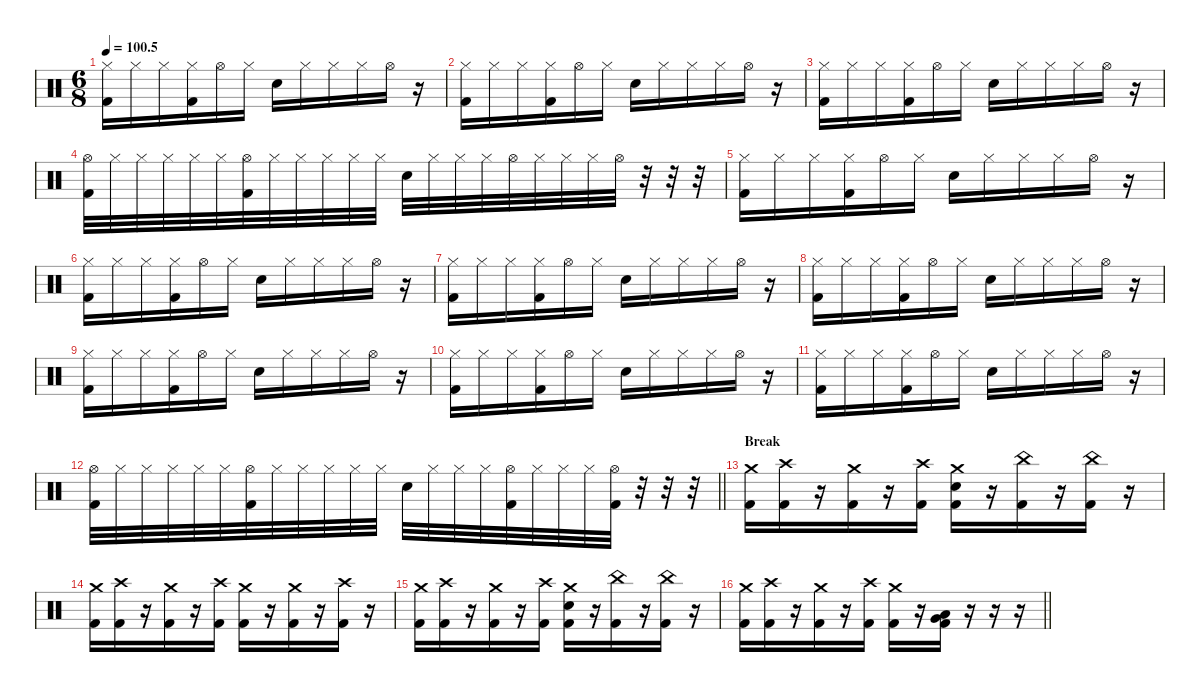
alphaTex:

\defaultSystemsLayout 4
\hideDynamics
\bracketExtendMode nobrackets
\singleTrackTrackNamePolicy hidden
\multiTrackTrackNamePolicy hidden
\firstSystemTrackNameMode fullname
\firstSystemTrackNameOrientation horizontal
\otherSystemsTrackNameOrientation horizontal
\track ("Drums" "drm.") {instrument percussion}
\staff {score}
\articulation defaults
\ts (6 8)
\tempo
100.5
\accidentals auto
\clef neutral
\ottava regular
\simile none
\ks c
("Hi-Hat (closed)" "Kick (hit) 2").16{dy f beam Down} "Hi-Hat (closed)".16{beam Down} "Hi-Hat (closed)".16{beam Down} ("Hi-Hat (closed)" "Kick (hit) 2").16{beam Down} "Hi-Hat (open)".16{beam Down} "Hi-Hat (closed)".16{beam Down} "Snare (hit) 2".16{beam Down} "Hi-Hat (closed)".16{beam Down} "Hi-Hat (closed)".16{beam Down} "Hi-Hat (closed)".16{beam Down} "Hi-Hat (open)".16{beam Down} r.16{beam Down} |
("Hi-Hat (closed)" "Kick (hit) 2").16{beam Down} "Hi-Hat (closed)".16{beam Down} "Hi-Hat (closed)".16{beam Down} ("Hi-Hat (closed)" "Kick (hit) 2").16{beam Down} "Hi-Hat (open)".16{beam Down} "Hi-Hat (closed)".16{beam Down} "Snare (hit) 2".16{beam Down} "Hi-Hat (closed)".16{beam Down} "Hi-Hat (closed)".16{beam Down} "Hi-Hat (closed)".16{beam Down} "Hi-Hat (open)".16{beam Down} r.16{beam Down} |
("Hi-Hat (closed)" "Kick (hit) 2").16{beam Down} "Hi-Hat (closed)".16{beam Down} "Hi-Hat (closed)".16{beam Down} ("Hi-Hat (closed)" "Kick (hit) 2").16{beam Down} "Hi-Hat (open)".16{beam Down} "Hi-Hat (closed)".16{beam Down} "Snare (hit) 2".16{beam Down} "Hi-Hat (closed)".16{beam Down} "Hi-Hat (closed)".16{beam Down} "Hi-Hat (closed)".16{beam Down} "Hi-Hat (open)".16{beam Down} r.16{beam Down} |
("Hi-Hat (open)" "Kick (hit) 2").32{beam Down} "Hi-Hat (closed)".32{beam Down} "Hi-Hat (closed)".32{beam Down} "Hi-Hat (closed)".32{beam Down} "Hi-Hat (closed)".32{beam Down} "Hi-Hat (closed)".32{beam Down} ("Hi-Hat (open)" "Kick (hit) 2").32{beam Down} "Hi-Hat (closed)".32{beam Down} "Hi-Hat (closed)".32{beam Down} "Hi-Hat (closed)".32{beam Down} "Hi-Hat (closed)".32{beam Down} "Hi-Hat (closed)".32{beam Down} "Snare (hit) 2".32{beam Down} "Hi-Hat (closed)".32{beam Down} "Hi-Hat (closed)".32{beam Down} "Hi-Hat (closed)".32{beam Down} "Hi-Hat (open)".32{beam Down} "Hi-Hat (closed)".32{beam Down} "Hi-Hat (closed)".32{beam Down} "Hi-Hat (closed)".32{beam Down} "Hi-Hat (open)".32{beam Down} r.32{beam Down} r.32{beam Down} r.32{beam Down} |
("Hi-Hat (closed)" "Kick (hit) 2").16{beam Down} "Hi-Hat (closed)".16{beam Down} "Hi-Hat (closed)".16{beam Down} ("Hi-Hat (closed)" "Kick (hit) 2").16{beam Down} "Hi-Hat (open)".16{beam Down} "Hi-Hat (closed)".16{beam Down} "Snare (hit) 2".16{beam Down} "Hi-Hat (closed)".16{beam Down} "Hi-Hat (closed)".16{beam Down} "Hi-Hat (closed)".16{beam Down} "Hi-Hat (open)".16{beam Down} r.16{beam Down} |
("Hi-Hat (closed)" "Kick (hit) 2").16{beam Down} "Hi-Hat (closed)".16{beam Down} "Hi-Hat (closed)".16{beam Down} ("Hi-Hat (closed)" "Kick (hit) 2").16{beam Down} "Hi-Hat (open)".16{beam Down} "Hi-Hat (closed)".16{beam Down} "Snare (hit) 2".16{beam Down} "Hi-Hat (closed)".16{beam Down} "Hi-Hat (closed)".16{beam Down} "Hi-Hat (closed)".16{beam Down} "Hi-Hat (open)".16{beam Down} r.16{beam Down} |
("Hi-Hat (closed)" "Kick (hit) 2").16{beam Down} "Hi-Hat (closed)".16{beam Down} "Hi-Hat (closed)".16{beam Down} ("Hi-Hat (closed)" "Kick (hit) 2").16{beam Down} "Hi-Hat (open)".16{beam Down} "Hi-Hat (closed)".16{beam Down} "Snare (hit) 2".16{beam Down} "Hi-Hat (closed)".16{beam Down} "Hi-Hat (closed)".16{beam Down} "Hi-Hat (closed)".16{beam Down} "Hi-Hat (open)".16{beam Down} r.16{beam Down} |
("Hi-Hat (closed)" "Kick (hit) 2").16{beam Down} "Hi-Hat (closed)".16{beam Down} "Hi-Hat (closed)".16{beam Down} ("Hi-Hat (closed)" "Kick (hit) 2").16{beam Down} "Hi-Hat (open)".16{beam Down} "Hi-Hat (closed)".16{beam Down} "Snare (hit) 2".16{beam Down} "Hi-Hat (closed)".16{beam Down} "Hi-Hat (closed)".16{beam Down} "Hi-Hat (closed)".16{beam Down} "Hi-Hat (open)".16{beam Down} r.16{beam Down} |
("Hi-Hat (closed)" "Kick (hit) 2").16{beam Down} "Hi-Hat (closed)".16{beam Down} "Hi-Hat (closed)".16{beam Down} ("Hi-Hat (closed)" "Kick (hit) 2").16{beam Down} "Hi-Hat (open)".16{beam Down} "Hi-Hat (closed)".16{beam Down} "Snare (hit) 2".16{beam Down} "Hi-Hat (closed)".16{beam Down} "Hi-Hat (closed)".16{beam Down} "Hi-Hat (closed)".16{beam Down} "Hi-Hat (open)".16{beam Down} r.16{beam Down} |
("Hi-Hat (closed)" "Kick (hit) 2").16{beam Down} "Hi-Hat (closed)".16{beam Down} "Hi-Hat (closed)".16{beam Down} ("Hi-Hat (closed)" "Kick (hit) 2").16{beam Down} "Hi-Hat (open)".16{beam Down} "Hi-Hat (closed)".16{beam Down} "Snare (hit) 2".16{beam Down} "Hi-Hat (closed)".16{beam Down} "Hi-Hat (closed)".16{beam Down} "Hi-Hat (closed)".16{beam Down} "Hi-Hat (open)".16{beam Down} r.16{beam Down} |
("Hi-Hat (closed)" "Kick (hit) 2").16{beam Down} "Hi-Hat (closed)".16{beam Down} "Hi-Hat (closed)".16{beam Down} ("Hi-Hat (closed)" "Kick (hit) 2").16{beam Down} "Hi-Hat (open)".16{beam Down} "Hi-Hat (closed)".16{beam Down} "Snare (hit) 2".16{beam Down} "Hi-Hat (closed)".16{beam Down} "Hi-Hat (closed)".16{beam Down} "Hi-Hat (closed)".16{beam Down} "Hi-Hat (open)".16{beam Down} r.16{beam Down} |
\barLineRight lightlight
("Hi-Hat (open)" "Kick (hit) 2").32{beam Down} "Hi-Hat (closed)".32{beam Down} "Hi-Hat (closed)".32{beam Down} "Hi-Hat (closed)".32{beam Down} "Hi-Hat (closed)".32{beam Down} "Hi-Hat (closed)".32{beam Down} ("Hi-Hat (open)" "Kick (hit) 2").32{beam Down} "Hi-Hat (closed)".32{beam Down} "Hi-Hat (closed)".32{beam Down} "Hi-Hat (closed)".32{beam Down} "Hi-Hat (closed)".32{beam Down} "Hi-Hat (closed)".32{beam Down} "Snare (hit) 2".32{beam Down} "Hi-Hat (closed)".32{beam Down} "Hi-Hat (closed)".32{beam Down} "Hi-Hat (closed)".32{beam Down} ("Hi-Hat (open)" "Kick (hit) 2").32{beam Down} "Hi-Hat (closed)".32{beam Down} "Hi-Hat (closed)".32{beam Down} "Hi-Hat (closed)".32{beam Down} ("Hi-Hat (open)" "Kick (hit) 2").32{beam Down} r.32{beam Down} r.32{beam Down} r.32{beam Down} |
\section ("" "Break")
("Crash medium (hit)" "Kick (hit) 2").16{beam Down} ("Crash high (hit)" "Kick (hit) 2").16{beam Down} r.16{beam Down} ("Crash medium (hit)" "Kick (hit) 2").16{beam Down} r.16{beam Down} ("Crash high (hit)" "Kick (hit) 2").16{beam Down} ("Crash medium (hit)" "Snare (hit) 2" "Kick (hit) 2").16{beam Down} r.16{beam Down} ("China (hit)" "Kick (hit) 2").16{beam Down} r.16{beam Down} ("China (hit)" "Kick (hit) 2").16{beam Down} r.16{beam Down} |
("Crash medium (hit)" "Kick (hit) 2").16{beam Down} ("Crash high (hit)" "Kick (hit) 2").16{beam Down} r.16{beam Down} ("Crash medium (hit)" "Kick (hit) 2").16{beam Down} r.16{beam Down} ("Crash high (hit)" "Kick (hit) 2").16{beam Down} ("Crash medium (hit)" "Kick (hit) 2").16{beam Down} r.16{beam Down} ("Crash medium (hit)" "Kick (hit) 2").16{beam Down} r.16{beam Down} ("Crash high (hit)" "Kick (hit) 2").16{beam Down} r.16{beam Down} |
("Crash medium (hit)" "Kick (hit) 2").16{beam Down} ("Crash high (hit)" "Kick (hit) 2").16{beam Down} r.16{beam Down} ("Crash medium (hit)" "Kick (hit) 2").16{beam Down} r.16{beam Down} ("Crash high (hit)" "Kick (hit) 2").16{beam Down} ("Crash medium (hit)" "Snare (hit) 2" "Kick (hit) 2").16{beam Down} r.16{beam Down} ("China (hit)" "Kick (hit) 2").16{beam Down} r.16{beam Down} ("China (hit)" "Kick (hit) 2").16{beam Down} r.16{beam Down} |
\barLineRight lightlight
("Crash medium (hit)" "Kick (hit) 2").16{beam Down} ("Crash high (hit)" "Kick (hit) 2").16{beam Down} r.16{beam Down} ("Crash medium (hit)" "Kick (hit) 2").16{beam Down} r.16{beam Down} ("Crash high (hit)" "Kick (hit) 2").16{beam Down} ("Crash medium (hit)" "Kick (hit) 2").16{beam Down} r.16{beam Down} ("Very Low Tom (hit)" "Low Tom (hit)" "Kick (hit) 2").16{beam Down} r.16{beam Up} r.16{beam Up} r.16{beam Up}
